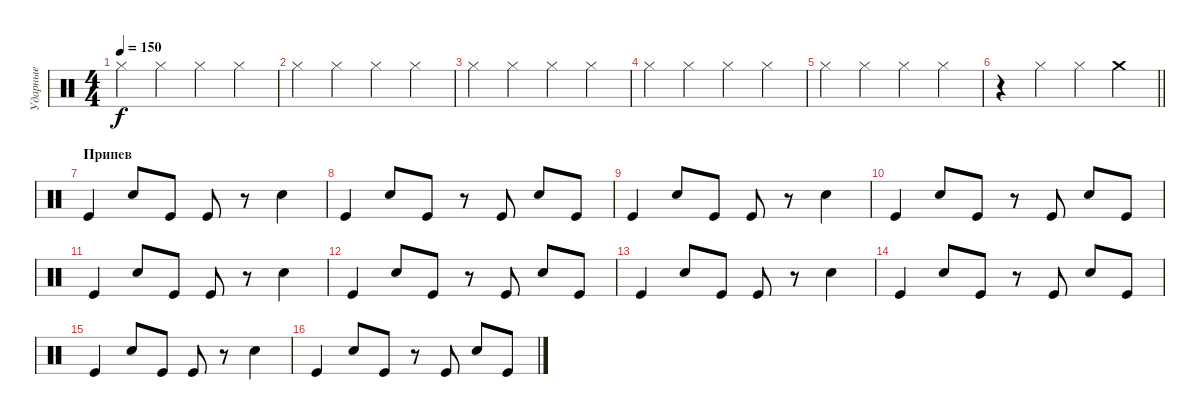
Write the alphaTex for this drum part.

\track ("Ударные" "Ударные") {instrument percussion}
\staff {score}
\articulation defaults
\ts (4 4)
\tempo 150
\clef neutral
\ks c "Hi-Hat (closed)".4{dy f} "Hi-Hat (closed)".4 "Hi-Hat (closed)".4 "Hi-Hat (closed)".4
|
"Hi-Hat (closed)".4 "Hi-Hat (closed)".4 "Hi-Hat (closed)".4 "Hi-Hat (closed)".4 |
"Hi-Hat (closed)".4 "Hi-Hat (closed)".4 "Hi-Hat (closed)".4 "Hi-Hat (closed)".4 |
"Hi-Hat (closed)".4 "Hi-Hat (closed)".4 "Hi-Hat (closed)".4 "Hi-Hat (closed)".4 |
"Hi-Hat (closed)".4 "Hi-Hat (closed)".4 "Hi-Hat (closed)".4 "Hi-Hat (closed)".4 |
\barLineRight lightlight
r.4 "Hi-Hat (closed)".4 "Hi-Hat (closed)".4 "Crash medium (hit)".4 |
\section ("" "Припев")
"Kick (hit)".4 "Snare (hit) 2".8 "Kick (hit)".8 "Kick (hit)".8 r.8 "Snare (hit) 2".4 |
"Kick (hit)".4 "Snare (hit) 2".8 "Kick (hit)".8 r.8 "Kick (hit)".8 "Snare (hit) 2".8 "Kick (hit)".8 |
"Kick (hit)".4 "Snare (hit) 2".8 "Kick (hit)".8 "Kick (hit)".8 r.8 "Snare (hit) 2".4 |
"Kick (hit)".4 "Snare (hit) 2".8 "Kick (hit)".8 r.8 "Kick (hit)".8 "Snare (hit) 2".8 "Kick (hit)".8 |
"Kick (hit)".4 "Snare (hit) 2".8 "Kick (hit)".8 "Kick (hit)".8 r.8 "Snare (hit) 2".4 |
"Kick (hit)".4 "Snare (hit) 2".8 "Kick (hit)".8 r.8 "Kick (hit)".8 "Snare (hit) 2".8 "Kick (hit)".8 |
"Kick (hit)".4 "Snare (hit) 2".8 "Kick (hit)".8 "Kick (hit)".8 r.8 "Snare (hit) 2".4 |
"Kick (hit)".4 "Snare (hit) 2".8 "Kick (hit)".8 r.8 "Kick (hit)".8 "Snare (hit) 2".8 "Kick (hit)".8 |
"Kick (hit)".4 "Snare (hit) 2".8 "Kick (hit)".8 "Kick (hit)".8 r.8 "Snare (hit) 2".4 |
"Kick (hit)".4 "Snare (hit) 2".8 "Kick (hit)".8 r.8 "Kick (hit)".8 "Snare (hit) 2".8 "Kick (hit)".8
